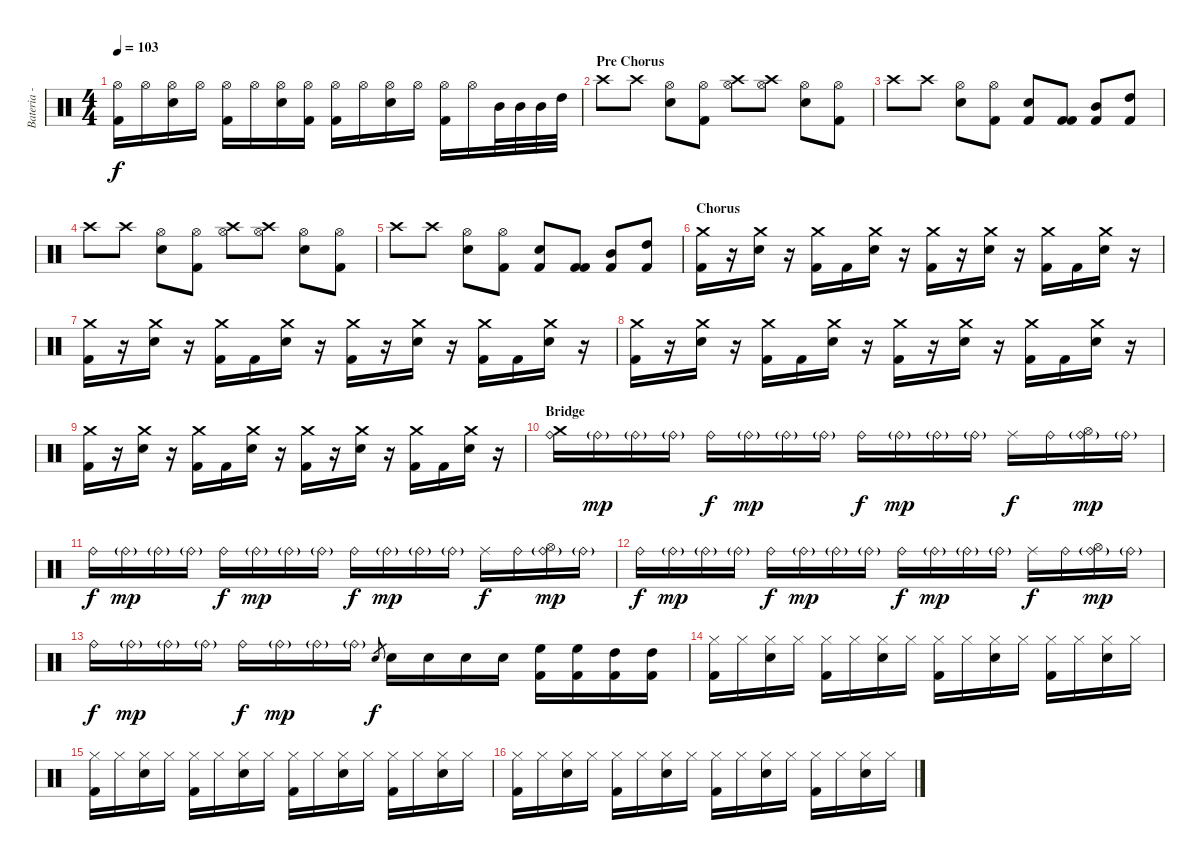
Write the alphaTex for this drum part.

\track ("Bateria - Larzon" "Bateria - ") {instrument percussion}
\staff {score}
\articulation defaults
\ts (4 4)
\tempo 103
\clef neutral
\ks c
("Kick (hit) 2" "Hi-Hat (open)").16{dy f} "Hi-Hat (open)".16 ("Snare (hit) 2" "Hi-Hat (open)").16 "Hi-Hat (open)".16 ("Kick (hit) 2" "Hi-Hat (open)").16 "Hi-Hat (open)".16 ("Snare (hit) 2" "Hi-Hat (open)").16 ("Kick (hit) 2" "Hi-Hat (open)").16 ("Kick (hit) 2" "Hi-Hat (open)").16 "Hi-Hat (open)".16 ("Snare (hit) 2" "Hi-Hat (open)").16 "Hi-Hat (open)".16 ("Kick (hit) 2" "Hi-Hat (open)").16 "Hi-Hat (open)".16 "Mid Tom (hit)".32 "Mid Tom (hit)".32 "Mid Tom (hit)".32 "High Tom (hit)".32 |
\section ("" "Pre Chorus")
"Crash high (hit)".8 "Crash high (hit)".8 ("Snare (hit) 2" "Hi-Hat (open)").8 ("Kick (hit) 2" "Hi-Hat (open)").8 ("Crash high (hit)" "Hi-Hat (open)").8 ("Crash high (hit)" "Hi-Hat (open)").8 ("Snare (hit) 2" "Hi-Hat (open)").8 ("Kick (hit) 2" "Hi-Hat (open)").8 |
"Crash high (hit)".8 "Crash high (hit)".8 ("Snare (hit) 2" "Hi-Hat (open)").8 ("Kick (hit) 2" "Hi-Hat (open)").8 ("Snare (hit) 2" "Kick (hit) 2").8 ("Kick (hit) 2" "Kick (hit) 2").8 ("Mid Tom (hit)" "Kick (hit) 2").8 ("High Tom (hit)" "Kick (hit) 2").8 |
"Crash high (hit)".8 "Crash high (hit)".8 ("Snare (hit) 2" "Hi-Hat (open)").8 ("Kick (hit) 2" "Hi-Hat (open)").8 ("Crash high (hit)" "Hi-Hat (open)").8 ("Crash high (hit)" "Hi-Hat (open)").8 ("Snare (hit) 2" "Hi-Hat (open)").8 ("Kick (hit) 2" "Hi-Hat (open)").8 |
"Crash high (hit)".8 "Crash high (hit)".8 ("Snare (hit) 2" "Hi-Hat (open)").8 ("Kick (hit) 2" "Hi-Hat (open)").8 ("Snare (hit) 2" "Kick (hit) 2").8 ("Kick (hit) 2" "Kick (hit) 2").8 ("Mid Tom (hit)" "Kick (hit) 2").8 ("High Tom (hit)" "Kick (hit) 2").8 |
\section ("" "Chorus")
("Kick (hit) 2" "Crash medium (hit)").16 r.16 ("Snare (hit) 2" "Crash medium (hit)").16 r.16 ("Kick (hit) 2" "Crash medium (hit)").16 "Kick (hit) 2".16 ("Snare (hit) 2" "Crash medium (hit)").16 r.16 ("Kick (hit) 2" "Crash medium (hit)").16 r.16 ("Snare (hit) 2" "Crash medium (hit)").16 r.16 ("Kick (hit) 2" "Crash medium (hit)").16 "Kick (hit) 2".16 ("Snare (hit) 2" "Crash medium (hit)").16 r.16 |
("Kick (hit) 2" "Crash medium (hit)").16 r.16 ("Snare (hit) 2" "Crash medium (hit)").16 r.16 ("Kick (hit) 2" "Crash medium (hit)").16 "Kick (hit) 2".16 ("Snare (hit) 2" "Crash medium (hit)").16 r.16 ("Kick (hit) 2" "Crash medium (hit)").16 r.16 ("Snare (hit) 2" "Crash medium (hit)").16 r.16 ("Kick (hit) 2" "Crash medium (hit)").16 "Kick (hit) 2".16 ("Snare (hit) 2" "Crash medium (hit)").16 r.16 |
("Kick (hit) 2" "Crash medium (hit)").16 r.16 ("Snare (hit) 2" "Crash medium (hit)").16 r.16 ("Kick (hit) 2" "Crash medium (hit)").16 "Kick (hit) 2".16 ("Snare (hit) 2" "Crash medium (hit)").16 r.16 ("Kick (hit) 2" "Crash medium (hit)").16 r.16 ("Snare (hit) 2" "Crash medium (hit)").16 r.16 ("Kick (hit) 2" "Crash medium (hit)").16 "Kick (hit) 2".16 ("Snare (hit) 2" "Crash medium (hit)").16 r.16 |
("Kick (hit) 2" "Crash medium (hit)").16 r.16 ("Snare (hit) 2" "Crash medium (hit)").16 r.16 ("Kick (hit) 2" "Crash medium (hit)").16 "Kick (hit) 2".16 ("Snare (hit) 2" "Crash medium (hit)").16 r.16 ("Kick (hit) 2" "Crash medium (hit)").16 r.16 ("Snare (hit) 2" "Crash medium (hit)").16 r.16 ("Kick (hit) 2" "Crash medium (hit)").16 "Kick (hit) 2".16 ("Snare (hit) 2" "Crash medium (hit)").16 r.16 |
\section ("" "Bridge")
("Crash medium (hit)" "Ride (bell)").16 "Ride (bell)"{g}.16{dy mp} "Ride (bell)"{g}.16 "Ride (bell)"{g}.16 "Ride (bell)".16{dy f} "Ride (bell)"{g}.16{dy mp} "Ride (bell)"{g}.16 "Ride (bell)"{g}.16 "Ride (bell)".16{dy f} "Ride (bell)"{g}.16{dy mp} "Ride (bell)"{g}.16 "Ride (bell)"{g}.16 "Ride (middle)".16{dy f} "Ride (bell)".16 ("Hi-Hat (open)" "Ride (bell)"{g}).16{dy mp} "Ride (bell)"{g}.16 |
"Ride (bell)".16{dy f} "Ride (bell)"{g}.16{dy mp} "Ride (bell)"{g}.16 "Ride (bell)"{g}.16 "Ride (bell)".16{dy f} "Ride (bell)"{g}.16{dy mp} "Ride (bell)"{g}.16 "Ride (bell)"{g}.16 "Ride (bell)".16{dy f} "Ride (bell)"{g}.16{dy mp} "Ride (bell)"{g}.16 "Ride (bell)"{g}.16 "Ride (middle)".16{dy f} "Ride (bell)".16 ("Hi-Hat (open)" "Ride (bell)"{g}).16{dy mp} "Ride (bell)"{g}.16 |
"Ride (bell)".16{dy f} "Ride (bell)"{g}.16{dy mp} "Ride (bell)"{g}.16 "Ride (bell)"{g}.16 "Ride (bell)".16{dy f} "Ride (bell)"{g}.16{dy mp} "Ride (bell)"{g}.16 "Ride (bell)"{g}.16 "Ride (bell)".16{dy f} "Ride (bell)"{g}.16{dy mp} "Ride (bell)"{g}.16 "Ride (bell)"{g}.16 "Ride (middle)".16{dy f} "Ride (bell)".16 ("Hi-Hat (open)" "Ride (bell)"{g}).16{dy mp} "Ride (bell)"{g}.16 |
"Ride (bell)".16{dy f} "Ride (bell)"{g}.16{dy mp} "Ride (bell)"{g}.16 "Ride (bell)"{g}.16 "Ride (bell)".16{dy f} "Ride (bell)"{g}.16{dy mp} "Ride (bell)"{g}.16 "Ride (bell)"{g}.16 "Electric Snare (hit)".8{gr dy f} "Electric Snare (hit)".16 "Electric Snare (hit)".16 "Electric Snare (hit)".16 "Electric Snare (hit)".16 ("High Floor Tom (hit)" "Kick (hit) 2").16 ("High Floor Tom (hit)" "Kick (hit) 2").16 ("High Tom (hit)" "Kick (hit) 2").16 ("High Tom (hit)" "Kick (hit) 2").16 |
("Kick (hit) 2" "Hi-Hat (closed)").16 "Hi-Hat (closed)".16 ("Snare (hit) 2" "Hi-Hat (closed)").16 "Hi-Hat (closed)".16 ("Kick (hit) 2" "Hi-Hat (closed)").16 "Hi-Hat (closed)".16 ("Snare (hit) 2" "Hi-Hat (closed)").16 "Hi-Hat (closed)".16 ("Kick (hit) 2" "Hi-Hat (closed)").16 "Hi-Hat (closed)".16 ("Snare (hit) 2" "Hi-Hat (closed)").16 "Hi-Hat (closed)".16 ("Kick (hit) 2" "Hi-Hat (closed)").16 "Hi-Hat (closed)".16 ("Snare (hit) 2" "Hi-Hat (closed)").16 "Hi-Hat (closed)".16 |
("Kick (hit) 2" "Hi-Hat (closed)").16 "Hi-Hat (closed)".16 ("Snare (hit) 2" "Hi-Hat (closed)").16 "Hi-Hat (closed)".16 ("Kick (hit) 2" "Hi-Hat (closed)").16 "Hi-Hat (closed)".16 ("Snare (hit) 2" "Hi-Hat (closed)").16 "Hi-Hat (closed)".16 ("Kick (hit) 2" "Hi-Hat (closed)").16 "Hi-Hat (closed)".16 ("Snare (hit) 2" "Hi-Hat (closed)").16 "Hi-Hat (closed)".16 ("Kick (hit) 2" "Hi-Hat (closed)").16 "Hi-Hat (closed)".16 ("Snare (hit) 2" "Hi-Hat (closed)").16 "Hi-Hat (closed)".16 |
("Kick (hit) 2" "Hi-Hat (closed)").16 "Hi-Hat (closed)".16 ("Snare (hit) 2" "Hi-Hat (closed)").16 "Hi-Hat (closed)".16 ("Kick (hit) 2" "Hi-Hat (closed)").16 "Hi-Hat (closed)".16 ("Snare (hit) 2" "Hi-Hat (closed)").16 "Hi-Hat (closed)".16 ("Kick (hit) 2" "Hi-Hat (closed)").16 "Hi-Hat (closed)".16 ("Snare (hit) 2" "Hi-Hat (closed)").16 "Hi-Hat (closed)".16 ("Kick (hit) 2" "Hi-Hat (closed)").16 "Hi-Hat (closed)".16 ("Snare (hit) 2" "Hi-Hat (closed)").16 "Hi-Hat (closed)".16
